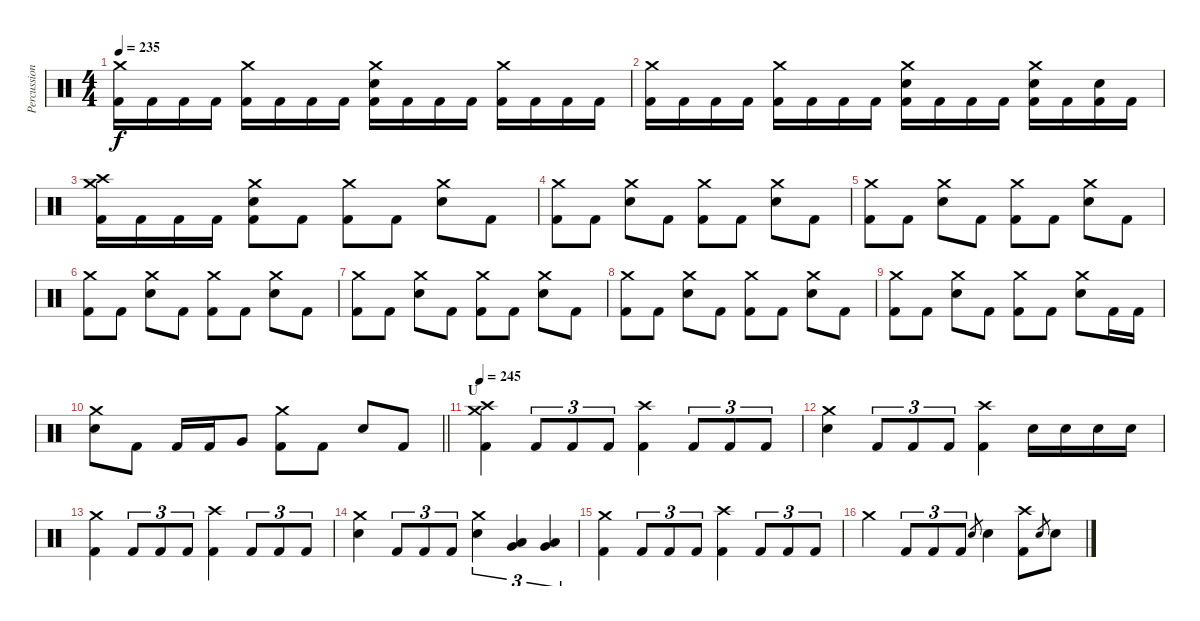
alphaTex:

\track ("Percussion" "Percussion") {instrument percussion}
\staff {score}
\articulation defaults
\ts (4 4)
\tempo 235
\clef neutral
\ks c
("Crash medium (hit)" "Kick (hit) 2").16{dy f} "Kick (hit) 2".16 "Kick (hit) 2".16 "Kick (hit) 2".16 ("Crash medium (hit)" "Kick (hit) 2").16 "Kick (hit) 2".16 "Kick (hit) 2".16 "Kick (hit) 2".16 ("Crash medium (hit)" "Electric Snare (hit)" "Kick (hit) 2").16 "Kick (hit) 2".16 "Kick (hit) 2".16 "Kick (hit) 2".16 ("Crash medium (hit)" "Kick (hit) 2").16 "Kick (hit) 2".16 "Kick (hit) 2".16 "Kick (hit) 2".16 |
("Crash medium (hit)" "Kick (hit) 2").16 "Kick (hit) 2".16 "Kick (hit) 2".16 "Kick (hit) 2".16 ("Crash medium (hit)" "Kick (hit) 2").16 "Kick (hit) 2".16 "Kick (hit) 2".16 "Kick (hit) 2".16 ("Crash medium (hit)" "Electric Snare (hit)" "Kick (hit) 2").16 "Kick (hit) 2".16 "Kick (hit) 2".16 "Kick (hit) 2".16 ("Crash medium (hit)" "Electric Snare (hit)" "Kick (hit) 2").16 "Kick (hit) 2".16 ("Electric Snare (hit)" "Kick (hit) 2").16 "Kick (hit) 2".16 |
("Crash medium (hit)" "Crash high (hit)" "Kick (hit) 2").16 "Kick (hit) 2".16 "Kick (hit) 2".16 "Kick (hit) 2".16 ("Crash medium (hit)" "Electric Snare (hit)" "Kick (hit) 2").8 "Kick (hit) 2".8 ("Crash medium (hit)" "Kick (hit) 2").8 "Kick (hit) 2".8 ("Crash medium (hit)" "Electric Snare (hit)").8 "Kick (hit) 2".8 |
("Crash medium (hit)" "Kick (hit) 2").8 "Kick (hit) 2".8 ("Crash medium (hit)" "Electric Snare (hit)").8 "Kick (hit) 2".8 ("Crash medium (hit)" "Kick (hit) 2").8 "Kick (hit) 2".8 ("Crash medium (hit)" "Electric Snare (hit)").8 "Kick (hit) 2".8 |
("Crash medium (hit)" "Kick (hit) 2").8 "Kick (hit) 2".8 ("Crash medium (hit)" "Electric Snare (hit)").8 "Kick (hit) 2".8 ("Crash medium (hit)" "Kick (hit) 2").8 "Kick (hit) 2".8 ("Crash medium (hit)" "Electric Snare (hit)").8 "Kick (hit) 2".8 |
("Crash medium (hit)" "Kick (hit) 2").8 "Kick (hit) 2".8 ("Crash medium (hit)" "Electric Snare (hit)").8 "Kick (hit) 2".8 ("Crash medium (hit)" "Kick (hit) 2").8 "Kick (hit) 2".8 ("Crash medium (hit)" "Electric Snare (hit)").8 "Kick (hit) 2".8 |
("Crash medium (hit)" "Kick (hit) 2").8 "Kick (hit) 2".8 ("Crash medium (hit)" "Electric Snare (hit)").8 "Kick (hit) 2".8 ("Crash medium (hit)" "Kick (hit) 2").8 "Kick (hit) 2".8 ("Crash medium (hit)" "Electric Snare (hit)").8 "Kick (hit) 2".8 |
("Crash medium (hit)" "Kick (hit) 2").8 "Kick (hit) 2".8 ("Crash medium (hit)" "Electric Snare (hit)").8 "Kick (hit) 2".8 ("Crash medium (hit)" "Kick (hit) 2").8 "Kick (hit) 2".8 ("Crash medium (hit)" "Electric Snare (hit)").8 "Kick (hit) 2".8 |
("Crash medium (hit)" "Kick (hit) 2").8 "Kick (hit) 2".8 ("Crash medium (hit)" "Electric Snare (hit)").8 "Kick (hit) 2".8 ("Crash medium (hit)" "Kick (hit) 2").8 "Kick (hit) 2".8 ("Crash medium (hit)" "Electric Snare (hit)").8 "Kick (hit) 2".16 "Kick (hit) 2".16 |
\barLineRight lightlight
("Crash medium (hit)" "Electric Snare (hit)").8 "Kick (hit) 2".8 "Kick (hit) 2".16 "Kick (hit) 2".16 "Very Low Tom (hit)".8 ("Crash medium (hit)" "Kick (hit) 2").8 "Kick (hit) 2".8 "Electric Snare (hit)".8 "Kick (hit) 2".8 |
\section ("" "U")
\tempo 245
("Crash medium (hit)" "Crash high (hit)" "Kick (hit) 2").4 "Kick (hit) 2".8{tu (3 2)} "Kick (hit) 2".8{tu (3 2)} "Kick (hit) 2".8{tu (3 2)} ("Crash high (hit)" "Kick (hit) 2").4 "Kick (hit) 2".8{tu (3 2)} "Kick (hit) 2".8{tu (3 2)} "Kick (hit) 2".8{tu (3 2)} |
("Crash medium (hit)" "Electric Snare (hit)").4 "Kick (hit) 2".8{tu (3 2)} "Kick (hit) 2".8{tu (3 2)} "Kick (hit) 2".8{tu (3 2)} ("Crash high (hit)" "Kick (hit) 2").4 "Electric Snare (hit)".16 "Electric Snare (hit)".16 "Electric Snare (hit)".16 "Electric Snare (hit)".16 |
("Crash medium (hit)" "Kick (hit) 2").4 "Kick (hit) 2".8{tu (3 2)} "Kick (hit) 2".8{tu (3 2)} "Kick (hit) 2".8{tu (3 2)} ("Crash high (hit)" "Kick (hit) 2").4 "Kick (hit) 2".8{tu (3 2)} "Kick (hit) 2".8{tu (3 2)} "Kick (hit) 2".8{tu (3 2)} |
("Crash medium (hit)" "Electric Snare (hit)").4 "Kick (hit) 2".8{tu (3 2)} "Kick (hit) 2".8{tu (3 2)} "Kick (hit) 2".8{tu (3 2)} ("Crash medium (hit)" "Electric Snare (hit)").4{tu (3 2)} ("Very Low Tom (hit)" "Low Floor Tom (hit)").4{tu (3 2)} ("Very Low Tom (hit)" "Low Floor Tom (hit)").4{tu (3 2)} |
("Crash medium (hit)" "Kick (hit) 2").4 "Kick (hit) 2".8{tu (3 2)} "Kick (hit) 2".8{tu (3 2)} "Kick (hit) 2".8{tu (3 2)} ("Crash high (hit)" "Kick (hit) 2").4 "Kick (hit) 2".8{tu (3 2)} "Kick (hit) 2".8{tu (3 2)} "Kick (hit) 2".8{tu (3 2)} |
"Crash medium (hit)".4 "Kick (hit) 2".8{tu (3 2)} "Kick (hit) 2".8{tu (3 2)} "Kick (hit) 2".8{tu (3 2)} "Electric Snare (hit)".8{gr} "Electric Snare (hit)".4 ("Crash high (hit)" "Kick (hit) 2").8 "Electric Snare (hit)".8{gr} "Electric Snare (hit)".8
